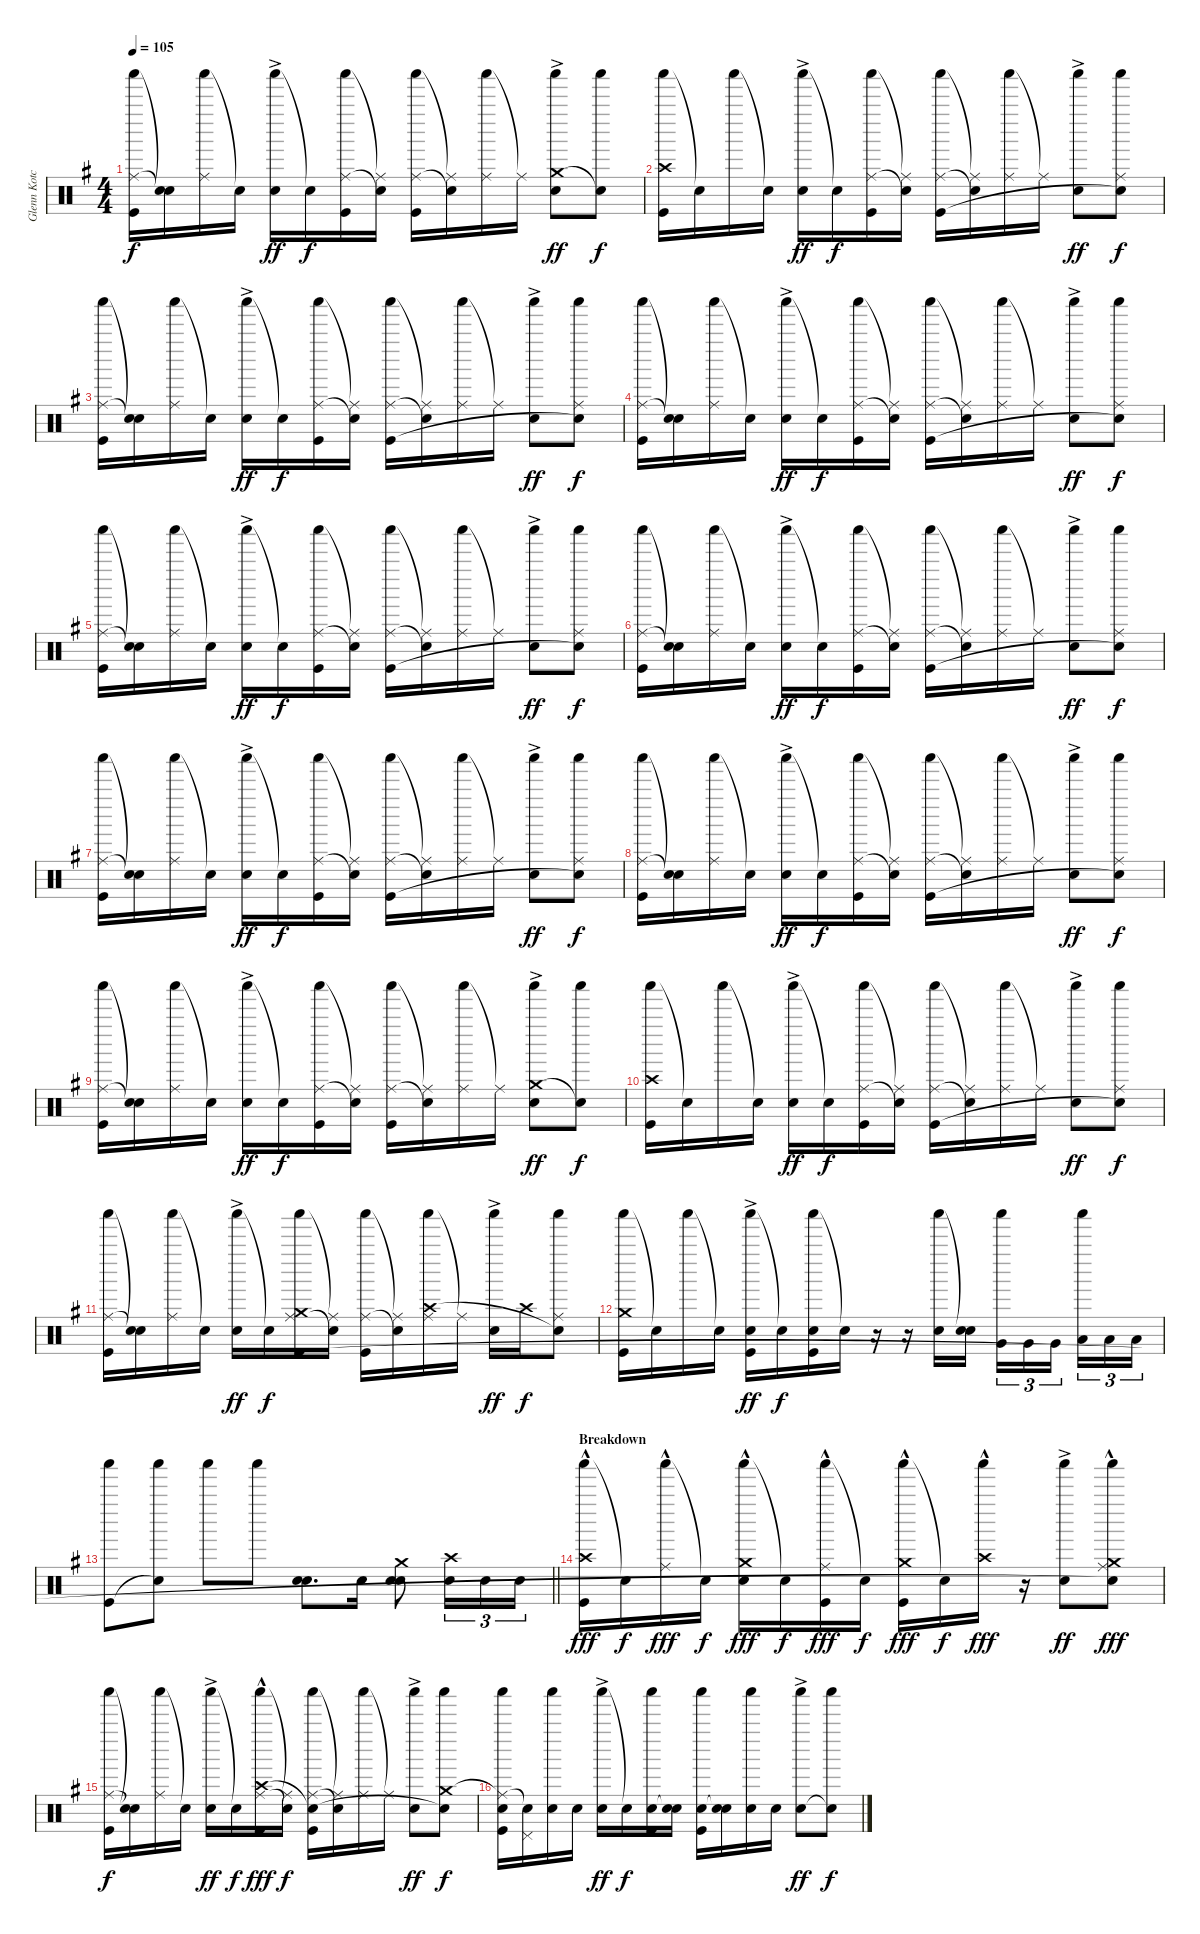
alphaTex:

\track ("Glenn Kotche" "Glenn Kotc") {mute instrument percussion}
\staff {score}
\articulation defaults
\ts (4 4)
\tempo 105
\clef neutral
\ks g
("Shaker (hit)" "Ride (middle)" "Kick (hit)").16{dy f} ("Snare (hit)"{t} "Snare (hit)"{t}).16 ("Shaker (hit)" "Ride (middle)").16 "Snare (hit)"{t}.16 ("Shaker (hit)" "Snare (hit) 2"{ac}).16{dy ff} "Snare (hit)"{t}.16{dy f} ("Shaker (hit)" "Ride (middle)" "Kick (hit)").16 ("Ride (middle)"{t} "Snare (hit)"{t}).16 ("Shaker (hit)" "Ride (middle)" "Kick (hit)").16 ("Ride (middle)"{t} "Snare (hit)"{t}).16 ("Shaker (hit)" "Ride (middle)").16 "Ride (middle)"{t}.16 ("Shaker (hit)" "Crash medium (hit)" "Snare (hit) 2"{ac}).8{dy ff} ("Shaker (hit)" "Snare (hit)"{t}).8{dy f} |
("Shaker (hit)" "Crash high (hit)" "Kick (hit)").16 "Snare (hit)"{t}.16 "Shaker (hit)".16 "Snare (hit)"{t}.16 ("Shaker (hit)" "Snare (hit) 2"{ac}).16{dy ff} "Snare (hit)"{t}.16{dy f} ("Shaker (hit)" "Ride (middle)" "Kick (hit)").16 ("Ride (middle)"{t} "Snare (hit)"{t}).16 ("Shaker (hit)" "Ride (middle)" "Kick (hit)").16 ("Ride (middle)"{t} "Snare (hit)"{t}).16 ("Shaker (hit)" "Ride (middle)").16 "Ride (middle)"{t}.16 ("Shaker (hit)" "Snare (hit) 2"{ac}).8{dy ff} ("Shaker (hit)" "Ride (middle)" "Snare (hit)"{t}).8{dy f} |
("Shaker (hit)" "Ride (middle)" "Kick (hit)").16 ("Snare (hit)"{t} "Snare (hit)"{t}).16 ("Shaker (hit)" "Ride (middle)").16 "Snare (hit)"{t}.16 ("Shaker (hit)" "Snare (hit) 2"{ac}).16{dy ff} "Snare (hit)"{t}.16{dy f} ("Shaker (hit)" "Ride (middle)" "Kick (hit)").16 ("Ride (middle)"{t} "Snare (hit)"{t}).16 ("Shaker (hit)" "Ride (middle)" "Kick (hit)").16 ("Ride (middle)"{t} "Snare (hit)"{t}).16 ("Shaker (hit)" "Ride (middle)").16 "Ride (middle)"{t}.16 ("Shaker (hit)" "Snare (hit) 2"{ac}).8{dy ff} ("Shaker (hit)" "Ride (middle)" "Snare (hit)"{t}).8{dy f} |
("Shaker (hit)" "Ride (middle)" "Kick (hit)").16 ("Snare (hit)"{t} "Snare (hit)"{t}).16 ("Shaker (hit)" "Ride (middle)").16 "Snare (hit)"{t}.16 ("Shaker (hit)" "Snare (hit) 2"{ac}).16{dy ff} "Snare (hit)"{t}.16{dy f} ("Shaker (hit)" "Ride (middle)" "Kick (hit)").16 ("Ride (middle)"{t} "Snare (hit)"{t}).16 ("Shaker (hit)" "Ride (middle)" "Kick (hit)").16 ("Ride (middle)"{t} "Snare (hit)"{t}).16 ("Shaker (hit)" "Ride (middle)").16 "Ride (middle)"{t}.16 ("Shaker (hit)" "Snare (hit) 2"{ac}).8{dy ff} ("Shaker (hit)" "Ride (middle)" "Snare (hit)"{t}).8{dy f} |
("Shaker (hit)" "Ride (middle)" "Kick (hit)").16 ("Snare (hit)"{t} "Snare (hit)"{t}).16 ("Shaker (hit)" "Ride (middle)").16 "Snare (hit)"{t}.16 ("Shaker (hit)" "Snare (hit) 2"{ac}).16{dy ff} "Snare (hit)"{t}.16{dy f} ("Shaker (hit)" "Ride (middle)" "Kick (hit)").16 ("Ride (middle)"{t} "Snare (hit)"{t}).16 ("Shaker (hit)" "Ride (middle)" "Kick (hit)").16 ("Ride (middle)"{t} "Snare (hit)"{t}).16 ("Shaker (hit)" "Ride (middle)").16 "Ride (middle)"{t}.16 ("Shaker (hit)" "Snare (hit) 2"{ac}).8{dy ff} ("Shaker (hit)" "Ride (middle)" "Snare (hit)"{t}).8{dy f} |
("Shaker (hit)" "Ride (middle)" "Kick (hit)").16 ("Snare (hit)"{t} "Snare (hit)"{t}).16 ("Shaker (hit)" "Ride (middle)").16 "Snare (hit)"{t}.16 ("Shaker (hit)" "Snare (hit) 2"{ac}).16{dy ff} "Snare (hit)"{t}.16{dy f} ("Shaker (hit)" "Ride (middle)" "Kick (hit)").16 ("Ride (middle)"{t} "Snare (hit)"{t}).16 ("Shaker (hit)" "Ride (middle)" "Kick (hit)").16 ("Ride (middle)"{t} "Snare (hit)"{t}).16 ("Shaker (hit)" "Ride (middle)").16 "Ride (middle)"{t}.16 ("Shaker (hit)" "Snare (hit) 2"{ac}).8{dy ff} ("Shaker (hit)" "Ride (middle)" "Snare (hit)"{t}).8{dy f} |
("Shaker (hit)" "Ride (middle)" "Kick (hit)").16 ("Snare (hit)"{t} "Snare (hit)"{t}).16 ("Shaker (hit)" "Ride (middle)").16 "Snare (hit)"{t}.16 ("Shaker (hit)" "Snare (hit) 2"{ac}).16{dy ff} "Snare (hit)"{t}.16{dy f} ("Shaker (hit)" "Ride (middle)" "Kick (hit)").16 ("Ride (middle)"{t} "Snare (hit)"{t}).16 ("Shaker (hit)" "Ride (middle)" "Kick (hit)").16 ("Ride (middle)"{t} "Snare (hit)"{t}).16 ("Shaker (hit)" "Ride (middle)").16 "Ride (middle)"{t}.16 ("Shaker (hit)" "Snare (hit) 2"{ac}).8{dy ff} ("Shaker (hit)" "Ride (middle)" "Snare (hit)"{t}).8{dy f} |
("Shaker (hit)" "Ride (middle)" "Kick (hit)").16 ("Snare (hit)"{t} "Snare (hit)"{t}).16 ("Shaker (hit)" "Ride (middle)").16 "Snare (hit)"{t}.16 ("Shaker (hit)" "Snare (hit) 2"{ac}).16{dy ff} "Snare (hit)"{t}.16{dy f} ("Shaker (hit)" "Ride (middle)" "Kick (hit)").16 ("Ride (middle)"{t} "Snare (hit)"{t}).16 ("Shaker (hit)" "Ride (middle)" "Kick (hit)").16 ("Ride (middle)"{t} "Snare (hit)"{t}).16 ("Shaker (hit)" "Ride (middle)").16 "Ride (middle)"{t}.16 ("Shaker (hit)" "Snare (hit) 2"{ac}).8{dy ff} ("Shaker (hit)" "Ride (middle)" "Snare (hit)"{t}).8{dy f} |
("Shaker (hit)" "Ride (middle)" "Kick (hit)").16 ("Snare (hit)"{t} "Snare (hit)"{t}).16 ("Shaker (hit)" "Ride (middle)").16 "Snare (hit)"{t}.16 ("Shaker (hit)" "Snare (hit) 2"{ac}).16{dy ff} "Snare (hit)"{t}.16{dy f} ("Shaker (hit)" "Ride (middle)" "Kick (hit)").16 ("Ride (middle)"{t} "Snare (hit)"{t}).16 ("Shaker (hit)" "Ride (middle)" "Kick (hit)").16 ("Ride (middle)"{t} "Snare (hit)"{t}).16 ("Shaker (hit)" "Ride (middle)").16 "Ride (middle)"{t}.16 ("Shaker (hit)" "Crash medium (hit)" "Snare (hit) 2"{ac}).8{dy ff} ("Shaker (hit)" "Snare (hit)"{t}).8{dy f} |
("Shaker (hit)" "Crash high (hit)" "Kick (hit)").16 "Snare (hit)"{t}.16 "Shaker (hit)".16 "Snare (hit)"{t}.16 ("Shaker (hit)" "Snare (hit) 2"{ac}).16{dy ff} "Snare (hit)"{t}.16{dy f} ("Shaker (hit)" "Ride (middle)" "Kick (hit)").16 ("Ride (middle)"{t} "Snare (hit)"{t}).16 ("Shaker (hit)" "Ride (middle)" "Kick (hit)").16 ("Ride (middle)"{t} "Snare (hit)"{t}).16 ("Shaker (hit)" "Ride (middle)").16 "Ride (middle)"{t}.16 ("Shaker (hit)" "Snare (hit) 2"{ac}).8{dy ff} ("Shaker (hit)" "Ride (middle)" "Snare (hit)"{t}).8{dy f} |
("Shaker (hit)" "Ride (middle)" "Kick (hit)").16 ("Snare (hit)"{t} "Snare (hit)"{t}).16 ("Shaker (hit)" "Ride (middle)").16 "Snare (hit)"{t}.16 ("Shaker (hit)" "Snare (hit) 2"{ac}).16{dy ff} "Snare (hit)"{t}.16{dy f} ("Shaker (hit)" "Ride (middle)" "Crash medium (hit)" "Kick (hit)").16 ("Ride (middle)"{t} "Snare (hit)"{t}).16 ("Shaker (hit)" "Ride (middle)" "Kick (hit)").16 ("Ride (middle)"{t} "Snare (hit)"{t}).16 ("Shaker (hit)" "Ride (middle)" "Crash high (hit)").16 "Ride (middle)"{t}.16 ("Shaker (hit)" "Snare (hit) 2"{ac}).16{dy ff} "Crash high (hit)".16{dy f} ("Shaker (hit)" "Ride (middle)" "Snare (hit)"{t}).8 |
("Shaker (hit)" "Crash medium (hit)" "Kick (hit)").16 "Snare (hit)"{t}.16 "Shaker (hit)".16 "Snare (hit)"{t}.16 ("Shaker (hit)" "Snare (hit) 2"{ac} "Kick (hit)").16{dy ff} "Snare (hit)"{t}.16{dy f} ("Shaker (hit)" "Snare (hit) 2" "Kick (hit)").16 "Snare (hit)"{t}.16 r.16 r.16 ("Shaker (hit)" "Snare (hit) 2").16 ("Snare (hit)"{t} "Snare (hit) 2").16 ("Shaker (hit)" "Very Low Tom (hit)").16{tu (3 2)} "Very Low Tom (hit)".16{tu (3 2)} "Very Low Tom (hit)".16{tu (3 2) beam splitsecondary} ("Shaker (hit)" "Low Floor Tom (hit)").16{tu (3 2)} "Low Floor Tom (hit)".16{tu (3 2)} "Low Floor Tom (hit)".16{tu (3 2)} |
\barLineRight lightlight
("Shaker (hit)" "Kick (hit)").8 ("Shaker (hit)" "Snare (hit)"{t}).8 "Shaker (hit)".8 "Shaker (hit)".8 ("Snare (hit) 2" "Snare (hit) 2").8{d} "Snare (hit) 2".16 ("Snare (hit) 2" "Crash medium (hit)" "Snare (hit) 2").8 ("Crash high (hit)" "Snare (hit) 2").16{tu (3 2)} "Snare (hit) 2".16{tu (3 2)} "Snare (hit) 2".16{tu (3 2)} |
\section ("" "Breakdown")
("Shaker (hit)" "Crash high (hit)"{hac} "Kick (hit)").16{dy fff} "Snare (hit)"{t}.16{dy f} ("Shaker (hit)" "Ride (middle)"{hac}).16{dy fff} "Snare (hit)"{t}.16{dy f} ("Shaker (hit)" "Crash medium (hit)"{hac} "Snare (hit) 2").16{dy fff} "Snare (hit)"{t}.16{dy f} ("Shaker (hit)" "Ride (middle)"{hac} "Kick (hit)").16{dy fff} "Snare (hit)"{t}.16{dy f} ("Shaker (hit)" "Crash medium (hit)"{hac} "Kick (hit)").16{dy fff} "Snare (hit)"{t}.16{dy f} ("Shaker (hit)" "Crash high (hit)"{hac}).16{dy fff} r.16 ("Shaker (hit)" "Snare (hit) 2"{ac}).8{dy ff} ("Shaker (hit)" "Ride (middle)" "Crash medium (hit)"{hac} "Snare (hit)"{t}).8{dy fff} |
("Shaker (hit)" "Ride (middle)" "Kick (hit)").16{dy f} ("Snare (hit)"{t} "Snare (hit)"{t}).16 ("Shaker (hit)" "Ride (middle)").16 "Snare (hit)"{t}.16 ("Shaker (hit)" "Snare (hit) 2"{ac}).16{dy ff} "Snare (hit)"{t}.16{dy f} ("Shaker (hit)" "Ride (middle)" "Crash high (hit)"{hac} "Kick (hit)").16{dy fff} ("Ride (middle)"{t} "Snare (hit)"{t}).16{dy f} ("Shaker (hit)" "Ride (middle)" "Snare (hit)"{t} "Kick (hit)").16 ("Ride (middle)"{t} "Snare (hit)"{t}).16 ("Shaker (hit)" "Ride (middle)").16 "Ride (middle)"{t}.16 ("Shaker (hit)" "Snare (hit) 2"{ac}).8{dy ff} ("Shaker (hit)" "Crash medium (hit)" "Snare (hit)"{t}).8{dy f} |
("Shaker (hit)" "Ride (middle)"{t} "Snare (hit) 2" "Kick (hit)").16 ("Pedal Hi-Hat (hit)" "Snare (hit)"{t}).16 ("Shaker (hit)" "Snare (hit) 2").16 "Snare (hit) 2".16 ("Shaker (hit)" "Snare (hit) 2"{ac}).16{dy ff} "Snare (hit)"{t}.16{dy f} ("Shaker (hit)" "Snare (hit) 2" "Kick (hit)").16 ("Snare (hit) 2" "Snare (hit)"{t}).16 ("Shaker (hit)" "Snare (hit) 2" "Kick (hit)").16 ("Snare (hit) 2" "Snare (hit)"{t}).16 ("Shaker (hit)" "Snare (hit) 2").16 "Snare (hit) 2".16 ("Shaker (hit)" "Snare (hit) 2"{ac}).8{dy ff} ("Shaker (hit)" "Snare (hit)"{t}).8{dy f}
